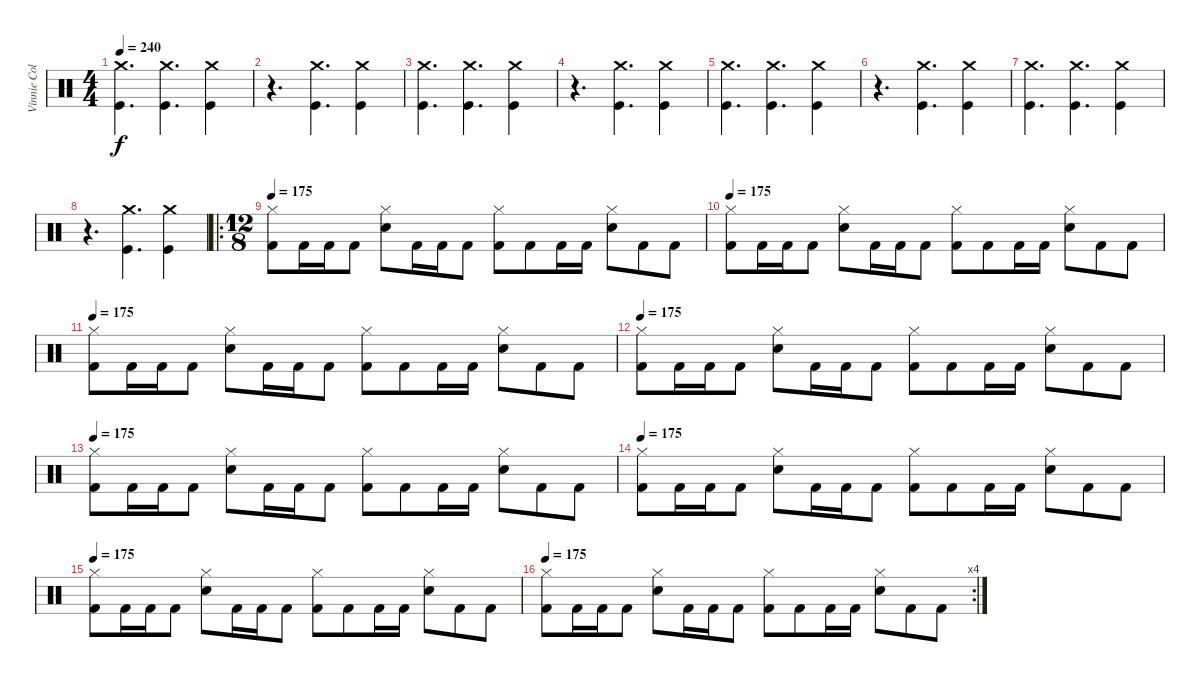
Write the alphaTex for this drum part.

\track ("Vinnie Colaiuta" "Vinnie Col") {instrument percussion}
\staff {score}
\articulation defaults
\ts (4 4)
\tempo 240
\clef neutral
\ks c
("Crash medium (hit)" "Kick (hit)").4{d dy f} ("Crash medium (hit)" "Kick (hit)").4{d} ("Crash medium (hit)" "Kick (hit)").4 |
r.4{d} ("Crash medium (hit)" "Kick (hit)").4{d} ("Crash medium (hit)" "Kick (hit)").4 |
("Crash medium (hit)" "Kick (hit)").4{d} ("Crash medium (hit)" "Kick (hit)").4{d} ("Crash medium (hit)" "Kick (hit)").4 |
r.4{d} ("Crash medium (hit)" "Kick (hit)").4{d} ("Crash medium (hit)" "Kick (hit)").4 |
("Crash medium (hit)" "Kick (hit)").4{d} ("Crash medium (hit)" "Kick (hit)").4{d} ("Crash medium (hit)" "Kick (hit)").4 |
r.4{d} ("Crash medium (hit)" "Kick (hit)").4{d} ("Crash medium (hit)" "Kick (hit)").4 |
("Crash medium (hit)" "Kick (hit)").4{d} ("Crash medium (hit)" "Kick (hit)").4{d} ("Crash medium (hit)" "Kick (hit)").4 |
r.4{d} ("Crash medium (hit)" "Kick (hit)").4{d} ("Crash medium (hit)" "Kick (hit)").4 |
\ro
\ts (12 8)
\tempo 175
("Kick (hit) 2" "Hi-Hat (closed)").8 "Kick (hit) 2".16 "Kick (hit) 2".16 "Kick (hit) 2".8 ("Snare (hit) 2" "Hi-Hat (closed)").8 "Kick (hit) 2".16 "Kick (hit) 2".16 "Kick (hit) 2".8 ("Kick (hit) 2" "Hi-Hat (closed)").8 "Kick (hit) 2".8 "Kick (hit) 2".16 "Kick (hit) 2".16 ("Snare (hit) 2" "Hi-Hat (closed)").8 "Kick (hit) 2".8 "Kick (hit) 2".8 |
\tempo 175
("Kick (hit) 2" "Hi-Hat (closed)").8 "Kick (hit) 2".16 "Kick (hit) 2".16 "Kick (hit) 2".8 ("Snare (hit) 2" "Hi-Hat (closed)").8 "Kick (hit) 2".16 "Kick (hit) 2".16 "Kick (hit) 2".8 ("Kick (hit) 2" "Hi-Hat (closed)").8 "Kick (hit) 2".8 "Kick (hit) 2".16 "Kick (hit) 2".16 ("Snare (hit) 2" "Hi-Hat (closed)").8 "Kick (hit) 2".8 "Kick (hit) 2".8 |
\tempo 175
("Kick (hit) 2" "Hi-Hat (closed)").8 "Kick (hit) 2".16 "Kick (hit) 2".16 "Kick (hit) 2".8 ("Snare (hit) 2" "Hi-Hat (closed)").8 "Kick (hit) 2".16 "Kick (hit) 2".16 "Kick (hit) 2".8 ("Kick (hit) 2" "Hi-Hat (closed)").8 "Kick (hit) 2".8 "Kick (hit) 2".16 "Kick (hit) 2".16 ("Snare (hit) 2" "Hi-Hat (closed)").8 "Kick (hit) 2".8 "Kick (hit) 2".8 |
\tempo 175
("Kick (hit) 2" "Hi-Hat (closed)").8 "Kick (hit) 2".16 "Kick (hit) 2".16 "Kick (hit) 2".8 ("Snare (hit) 2" "Hi-Hat (closed)").8 "Kick (hit) 2".16 "Kick (hit) 2".16 "Kick (hit) 2".8 ("Kick (hit) 2" "Hi-Hat (closed)").8 "Kick (hit) 2".8 "Kick (hit) 2".16 "Kick (hit) 2".16 ("Snare (hit) 2" "Hi-Hat (closed)").8 "Kick (hit) 2".8 "Kick (hit) 2".8 |
\tempo 175
("Kick (hit) 2" "Hi-Hat (closed)").8 "Kick (hit) 2".16 "Kick (hit) 2".16 "Kick (hit) 2".8 ("Snare (hit) 2" "Hi-Hat (closed)").8 "Kick (hit) 2".16 "Kick (hit) 2".16 "Kick (hit) 2".8 ("Kick (hit) 2" "Hi-Hat (closed)").8 "Kick (hit) 2".8 "Kick (hit) 2".16 "Kick (hit) 2".16 ("Snare (hit) 2" "Hi-Hat (closed)").8 "Kick (hit) 2".8 "Kick (hit) 2".8 |
\tempo 175
("Kick (hit) 2" "Hi-Hat (closed)").8 "Kick (hit) 2".16 "Kick (hit) 2".16 "Kick (hit) 2".8 ("Snare (hit) 2" "Hi-Hat (closed)").8 "Kick (hit) 2".16 "Kick (hit) 2".16 "Kick (hit) 2".8 ("Kick (hit) 2" "Hi-Hat (closed)").8 "Kick (hit) 2".8 "Kick (hit) 2".16 "Kick (hit) 2".16 ("Snare (hit) 2" "Hi-Hat (closed)").8 "Kick (hit) 2".8 "Kick (hit) 2".8 |
\tempo 175
("Kick (hit) 2" "Hi-Hat (closed)").8 "Kick (hit) 2".16 "Kick (hit) 2".16 "Kick (hit) 2".8 ("Snare (hit) 2" "Hi-Hat (closed)").8 "Kick (hit) 2".16 "Kick (hit) 2".16 "Kick (hit) 2".8 ("Kick (hit) 2" "Hi-Hat (closed)").8 "Kick (hit) 2".8 "Kick (hit) 2".16 "Kick (hit) 2".16 ("Snare (hit) 2" "Hi-Hat (closed)").8 "Kick (hit) 2".8 "Kick (hit) 2".8 |
\rc 4
\tempo 175
("Kick (hit) 2" "Hi-Hat (closed)").8 "Kick (hit) 2".16 "Kick (hit) 2".16 "Kick (hit) 2".8 ("Snare (hit) 2" "Hi-Hat (closed)").8 "Kick (hit) 2".16 "Kick (hit) 2".16 "Kick (hit) 2".8 ("Kick (hit) 2" "Hi-Hat (closed)").8 "Kick (hit) 2".8 "Kick (hit) 2".16 "Kick (hit) 2".16 ("Snare (hit) 2" "Hi-Hat (closed)").8 "Kick (hit) 2".8 "Kick (hit) 2".8
